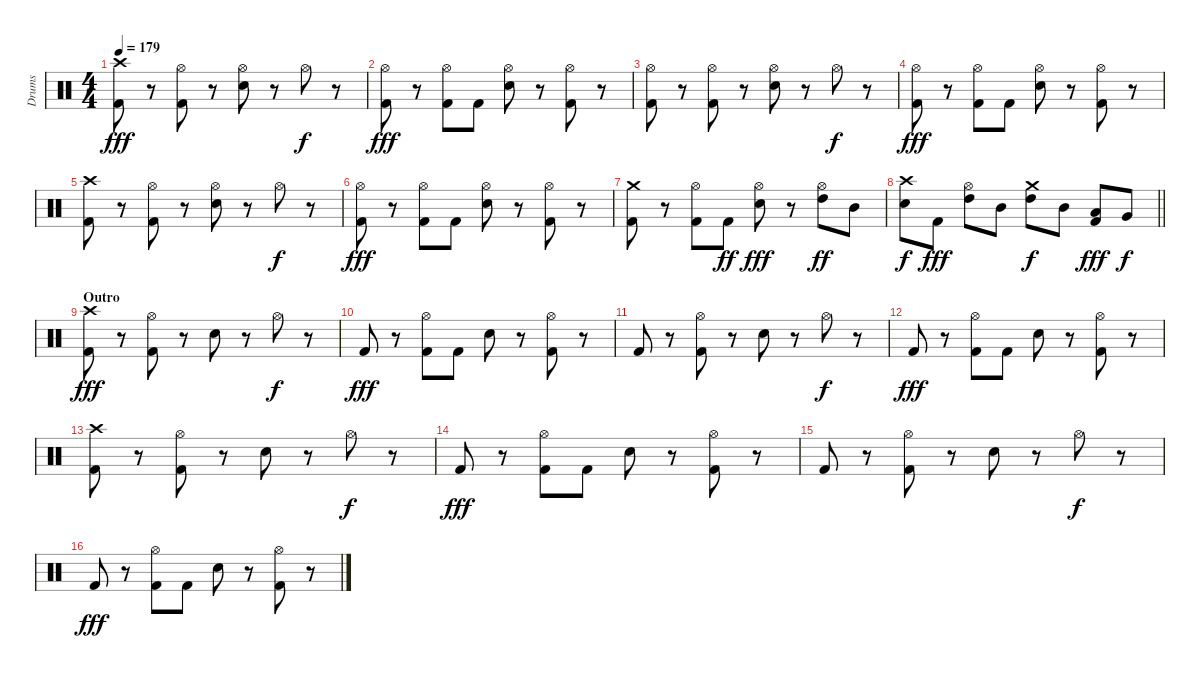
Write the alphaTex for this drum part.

\track ("Drums" "Drums") {instrument percussion}
\staff {score}
\articulation defaults
\ts (4 4)
\tempo 179
\clef neutral
\ks c
("Crash high (hit)" "Kick (hit) 2").8{dy fff} r.8 ("Hi-Hat (open)" "Kick (hit) 2").8 r.8 ("Hi-Hat (open)" "Snare (hit) 2").8 r.8 "Hi-Hat (open)".8{dy f} r.8 |
("Hi-Hat (open)" "Kick (hit) 2").8{dy fff} r.8 ("Hi-Hat (open)" "Kick (hit) 2").8 "Kick (hit) 2".8 ("Hi-Hat (open)" "Snare (hit) 2").8 r.8 ("Hi-Hat (open)" "Kick (hit) 2").8 r.8 |
("Hi-Hat (open)" "Kick (hit) 2").8 r.8 ("Hi-Hat (open)" "Kick (hit) 2").8 r.8 ("Hi-Hat (open)" "Snare (hit) 2").8 r.8 "Hi-Hat (open)".8{dy f} r.8 |
("Hi-Hat (open)" "Kick (hit) 2").8{dy fff} r.8 ("Hi-Hat (open)" "Kick (hit) 2").8 "Kick (hit) 2".8 ("Hi-Hat (open)" "Snare (hit) 2").8 r.8 ("Hi-Hat (open)" "Kick (hit) 2").8 r.8 |
("Crash high (hit)" "Kick (hit) 2").8 r.8 ("Hi-Hat (open)" "Kick (hit) 2").8 r.8 ("Hi-Hat (open)" "Snare (hit) 2").8 r.8 "Hi-Hat (open)".8{dy f} r.8 |
("Hi-Hat (open)" "Kick (hit) 2").8{dy fff} r.8 ("Hi-Hat (open)" "Kick (hit) 2").8 "Kick (hit) 2".8 ("Hi-Hat (open)" "Snare (hit) 2").8 r.8 ("Hi-Hat (open)" "Kick (hit) 2").8 r.8 |
("Crash medium (hit)" "Kick (hit) 2").8 r.8 ("Hi-Hat (open)" "Kick (hit) 2").8 "Kick (hit) 2".8{dy ff} ("Hi-Hat (open)" "Snare (hit) 2").8{dy fff} r.8 ("Hi-Hat (open)" "High Tom (hit)").8{dy ff} "Mid Tom (hit)".8 |
\barLineRight lightlight
("Crash high (hit)" "Snare (hit) 2").8{dy f} "Kick (hit) 2".8{dy fff} ("Hi-Hat (open)" "High Tom (hit)").8 "Mid Tom (hit)".8 ("Crash medium (hit)" "High Tom (hit)").8{dy f} "Mid Tom (hit)".8 ("Low Tom (hit)" "Kick (hit) 2").8{dy fff} "Very Low Tom (hit)".8{dy f} |
\section ("" "Outro")
("Crash high (hit)" "Kick (hit) 2").8{dy fff} r.8 ("Hi-Hat (open)" "Kick (hit) 2").8 r.8 "Snare (hit) 2".8 r.8 "Hi-Hat (open)".8{dy f} r.8 |
"Kick (hit) 2".8{dy fff} r.8 ("Hi-Hat (open)" "Kick (hit) 2").8 "Kick (hit) 2".8 "Snare (hit) 2".8 r.8 ("Hi-Hat (open)" "Kick (hit) 2").8 r.8 |
"Kick (hit) 2".8 r.8 ("Hi-Hat (open)" "Kick (hit) 2").8 r.8 "Snare (hit) 2".8 r.8 "Hi-Hat (open)".8{dy f} r.8 |
"Kick (hit) 2".8{dy fff} r.8 ("Hi-Hat (open)" "Kick (hit) 2").8 "Kick (hit) 2".8 "Snare (hit) 2".8 r.8 ("Hi-Hat (open)" "Kick (hit) 2").8 r.8 |
("Crash high (hit)" "Kick (hit) 2").8 r.8 ("Hi-Hat (open)" "Kick (hit) 2").8 r.8 "Snare (hit) 2".8 r.8 "Hi-Hat (open)".8{dy f} r.8 |
"Kick (hit) 2".8{dy fff} r.8 ("Hi-Hat (open)" "Kick (hit) 2").8 "Kick (hit) 2".8 "Snare (hit) 2".8 r.8 ("Hi-Hat (open)" "Kick (hit) 2").8 r.8 |
"Kick (hit) 2".8 r.8 ("Hi-Hat (open)" "Kick (hit) 2").8 r.8 "Snare (hit) 2".8 r.8 "Hi-Hat (open)".8{dy f} r.8 |
"Kick (hit) 2".8{dy fff} r.8 ("Hi-Hat (open)" "Kick (hit) 2").8 "Kick (hit) 2".8 "Snare (hit) 2".8 r.8 ("Hi-Hat (open)" "Kick (hit) 2").8 r.8
